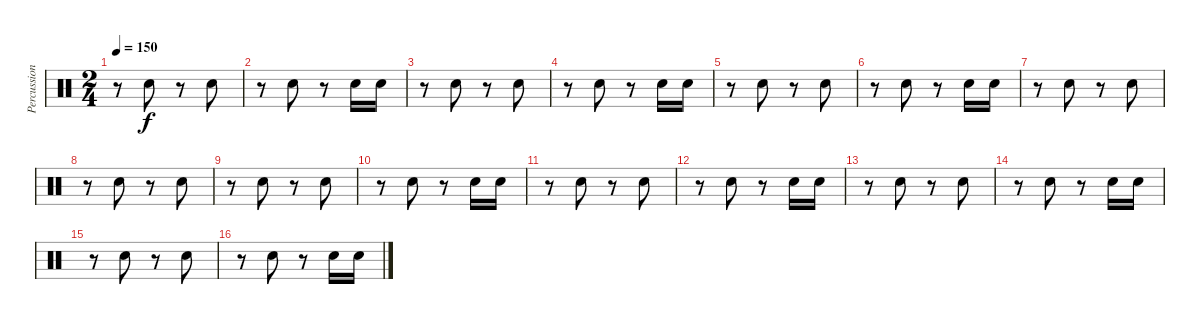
\track ("Percussions" "Percussion") {instrument percussion}
\staff {score}
\articulation defaults
\ts (2 4)
\tempo 150
\clef neutral
\ks c
r.8{dy f} "Electric Snare (hit)".8 r.8 "Electric Snare (hit)".8 |
r.8 "Electric Snare (hit)".8 r.8 "Electric Snare (hit)".16 "Electric Snare (hit)".16 |
r.8 "Electric Snare (hit)".8 r.8 "Electric Snare (hit)".8 |
r.8 "Electric Snare (hit)".8 r.8 "Electric Snare (hit)".16 "Electric Snare (hit)".16 |
r.8 "Electric Snare (hit)".8 r.8 "Electric Snare (hit)".8 |
r.8 "Electric Snare (hit)".8 r.8 "Electric Snare (hit)".16 "Electric Snare (hit)".16 |
r.8 "Electric Snare (hit)".8 r.8 "Electric Snare (hit)".8 |
r.8 "Electric Snare (hit)".8 r.8 "Electric Snare (hit)".8 |
r.8 "Electric Snare (hit)".8 r.8 "Electric Snare (hit)".8 |
r.8 "Electric Snare (hit)".8 r.8 "Electric Snare (hit)".16 "Electric Snare (hit)".16 |
r.8 "Electric Snare (hit)".8 r.8 "Electric Snare (hit)".8 |
r.8 "Electric Snare (hit)".8 r.8 "Electric Snare (hit)".16 "Electric Snare (hit)".16 |
r.8 "Electric Snare (hit)".8 r.8 "Electric Snare (hit)".8 |
r.8 "Electric Snare (hit)".8 r.8 "Electric Snare (hit)".16 "Electric Snare (hit)".16 |
r.8 "Electric Snare (hit)".8 r.8 "Electric Snare (hit)".8 |
r.8 "Electric Snare (hit)".8 r.8 "Electric Snare (hit)".16 "Electric Snare (hit)".16
